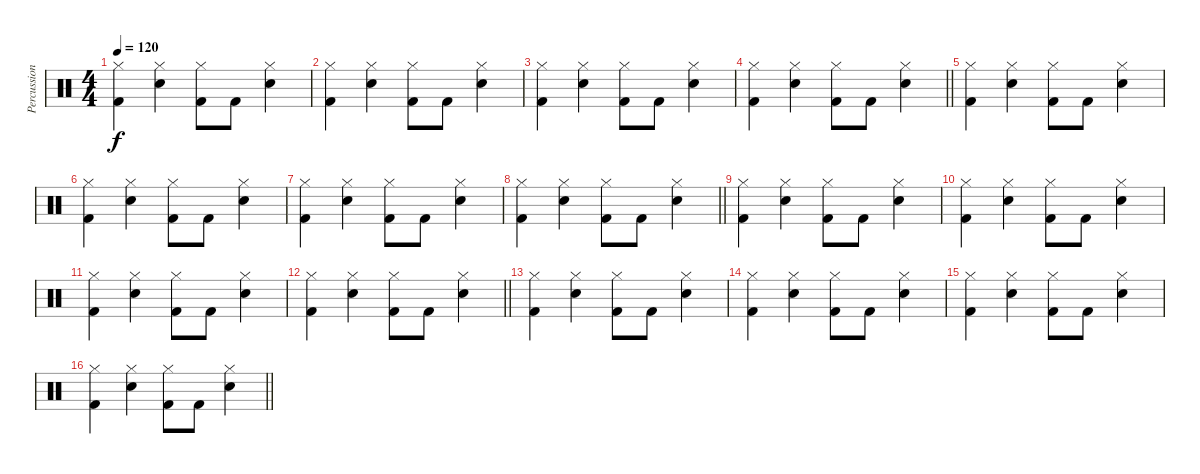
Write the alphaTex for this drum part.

\track ("Percussion" "Percussion") {instrument percussion}
\staff {score}
\articulation defaults
\ts (4 4)
\tempo 120
\clef neutral
\ks c
("Hi-Hat (closed)" "Kick (hit) 2").4{dy f} ("Hi-Hat (closed)" "Snare (hit) 2").4 ("Hi-Hat (closed)" "Kick (hit) 2").8 "Kick (hit) 2".8 ("Hi-Hat (closed)" "Snare (hit) 2").4 |
("Hi-Hat (closed)" "Kick (hit) 2").4 ("Hi-Hat (closed)" "Snare (hit) 2").4 ("Hi-Hat (closed)" "Kick (hit) 2").8 "Kick (hit) 2".8 ("Hi-Hat (closed)" "Snare (hit) 2").4 |
("Hi-Hat (closed)" "Kick (hit) 2").4 ("Hi-Hat (closed)" "Snare (hit) 2").4 ("Hi-Hat (closed)" "Kick (hit) 2").8 "Kick (hit) 2".8 ("Hi-Hat (closed)" "Snare (hit) 2").4 |
\barLineRight lightlight
("Hi-Hat (closed)" "Kick (hit) 2").4 ("Hi-Hat (closed)" "Snare (hit) 2").4 ("Hi-Hat (closed)" "Kick (hit) 2").8 "Kick (hit) 2".8 ("Hi-Hat (closed)" "Snare (hit) 2").4 |
("Hi-Hat (closed)" "Kick (hit) 2").4 ("Hi-Hat (closed)" "Snare (hit) 2").4 ("Hi-Hat (closed)" "Kick (hit) 2").8 "Kick (hit) 2".8 ("Hi-Hat (closed)" "Snare (hit) 2").4 |
("Hi-Hat (closed)" "Kick (hit) 2").4 ("Hi-Hat (closed)" "Snare (hit) 2").4 ("Hi-Hat (closed)" "Kick (hit) 2").8 "Kick (hit) 2".8 ("Hi-Hat (closed)" "Snare (hit) 2").4 |
("Hi-Hat (closed)" "Kick (hit) 2").4 ("Hi-Hat (closed)" "Snare (hit) 2").4 ("Hi-Hat (closed)" "Kick (hit) 2").8 "Kick (hit) 2".8 ("Hi-Hat (closed)" "Snare (hit) 2").4 |
\barLineRight lightlight
("Hi-Hat (closed)" "Kick (hit) 2").4 ("Hi-Hat (closed)" "Snare (hit) 2").4 ("Hi-Hat (closed)" "Kick (hit) 2").8 "Kick (hit) 2".8 ("Hi-Hat (closed)" "Snare (hit) 2").4 |
("Hi-Hat (closed)" "Kick (hit) 2").4 ("Hi-Hat (closed)" "Snare (hit) 2").4 ("Hi-Hat (closed)" "Kick (hit) 2").8 "Kick (hit) 2".8 ("Hi-Hat (closed)" "Snare (hit) 2").4 |
("Hi-Hat (closed)" "Kick (hit) 2").4 ("Hi-Hat (closed)" "Snare (hit) 2").4 ("Hi-Hat (closed)" "Kick (hit) 2").8 "Kick (hit) 2".8 ("Hi-Hat (closed)" "Snare (hit) 2").4 |
("Hi-Hat (closed)" "Kick (hit) 2").4 ("Hi-Hat (closed)" "Snare (hit) 2").4 ("Hi-Hat (closed)" "Kick (hit) 2").8 "Kick (hit) 2".8 ("Hi-Hat (closed)" "Snare (hit) 2").4 |
\barLineRight lightlight
("Hi-Hat (closed)" "Kick (hit) 2").4 ("Hi-Hat (closed)" "Snare (hit) 2").4 ("Hi-Hat (closed)" "Kick (hit) 2").8 "Kick (hit) 2".8 ("Hi-Hat (closed)" "Snare (hit) 2").4 |
("Hi-Hat (closed)" "Kick (hit) 2").4 ("Hi-Hat (closed)" "Snare (hit) 2").4 ("Hi-Hat (closed)" "Kick (hit) 2").8 "Kick (hit) 2".8 ("Hi-Hat (closed)" "Snare (hit) 2").4 |
("Hi-Hat (closed)" "Kick (hit) 2").4 ("Hi-Hat (closed)" "Snare (hit) 2").4 ("Hi-Hat (closed)" "Kick (hit) 2").8 "Kick (hit) 2".8 ("Hi-Hat (closed)" "Snare (hit) 2").4 |
("Hi-Hat (closed)" "Kick (hit) 2").4 ("Hi-Hat (closed)" "Snare (hit) 2").4 ("Hi-Hat (closed)" "Kick (hit) 2").8 "Kick (hit) 2".8 ("Hi-Hat (closed)" "Snare (hit) 2").4 |
\barLineRight lightlight
("Hi-Hat (closed)" "Kick (hit) 2").4 ("Hi-Hat (closed)" "Snare (hit) 2").4 ("Hi-Hat (closed)" "Kick (hit) 2").8 "Kick (hit) 2".8 ("Hi-Hat (closed)" "Snare (hit) 2").4
